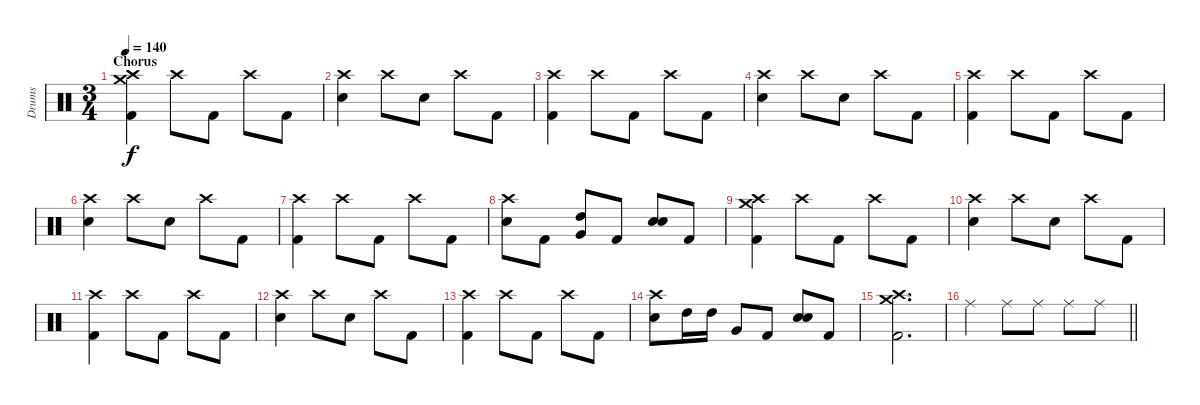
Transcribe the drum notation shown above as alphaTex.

\track ("Drums" "Drums") {instrument percussion}
\staff {score}
\articulation defaults
\ts (3 4)
\section ("" "Chorus")
\tempo 140
\clef neutral
\ks c
("Kick (hit) 2" "Crash high (hit)" "Crash medium (hit)").4{dy f} "Crash high (hit)".8 "Kick (hit) 2".8 "Crash high (hit)".8 "Kick (hit) 2".8 |
("Electric Snare (hit)" "Crash high (hit)").4 "Crash high (hit)".8 "Electric Snare (hit)".8 "Crash high (hit)".8 "Kick (hit) 2".8 |
("Kick (hit) 2" "Crash high (hit)").4 "Crash high (hit)".8 "Kick (hit) 2".8 "Crash high (hit)".8 "Kick (hit) 2".8 |
("Electric Snare (hit)" "Crash high (hit)").4 "Crash high (hit)".8 "Electric Snare (hit)".8 "Crash high (hit)".8 "Kick (hit) 2".8 |
("Kick (hit) 2" "Crash high (hit)").4 "Crash high (hit)".8 "Kick (hit) 2".8 "Crash high (hit)".8 "Kick (hit) 2".8 |
("Electric Snare (hit)" "Crash high (hit)").4 "Crash high (hit)".8 "Electric Snare (hit)".8 "Crash high (hit)".8 "Kick (hit) 2".8 |
("Kick (hit) 2" "Crash high (hit)").4 "Crash high (hit)".8 "Kick (hit) 2".8 "Crash high (hit)".8 "Kick (hit) 2".8 |
("Electric Snare (hit)" "Crash high (hit)").8 "Kick (hit) 2".8 ("Very Low Tom (hit)" "High Tom (hit)").8 "Kick (hit) 2".8 ("Electric Snare (hit)" "Electric Snare (hit)").8 "Kick (hit) 2".8 |
("Kick (hit) 2" "Crash high (hit)" "Crash medium (hit)").4 "Crash high (hit)".8 "Kick (hit) 2".8 "Crash high (hit)".8 "Kick (hit) 2".8 |
("Electric Snare (hit)" "Crash high (hit)").4 "Crash high (hit)".8 "Electric Snare (hit)".8 "Crash high (hit)".8 "Kick (hit) 2".8 |
("Kick (hit) 2" "Crash high (hit)").4 "Crash high (hit)".8 "Kick (hit) 2".8 "Crash high (hit)".8 "Kick (hit) 2".8 |
("Electric Snare (hit)" "Crash high (hit)").4 "Crash high (hit)".8 "Electric Snare (hit)".8 "Crash high (hit)".8 "Kick (hit) 2".8 |
("Kick (hit) 2" "Crash high (hit)").4 "Crash high (hit)".8 "Kick (hit) 2".8 "Crash high (hit)".8 "Kick (hit) 2".8 |
("Electric Snare (hit)" "Crash high (hit)").8 "High Tom (hit)".16 "High Tom (hit)".16 "Very Low Tom (hit)".8 "Kick (hit) 2".8 ("Electric Snare (hit)" "Electric Snare (hit)").8 "Kick (hit) 2".8 |
("Kick (hit) 2" "Crash high (hit)" "Crash medium (hit)").2{d} |
\barLineRight lightlight "Ride (middle)".4 "Ride (middle)".8 "Ride (middle)".8 "Ride (middle)".8 "Ride (middle)".8
